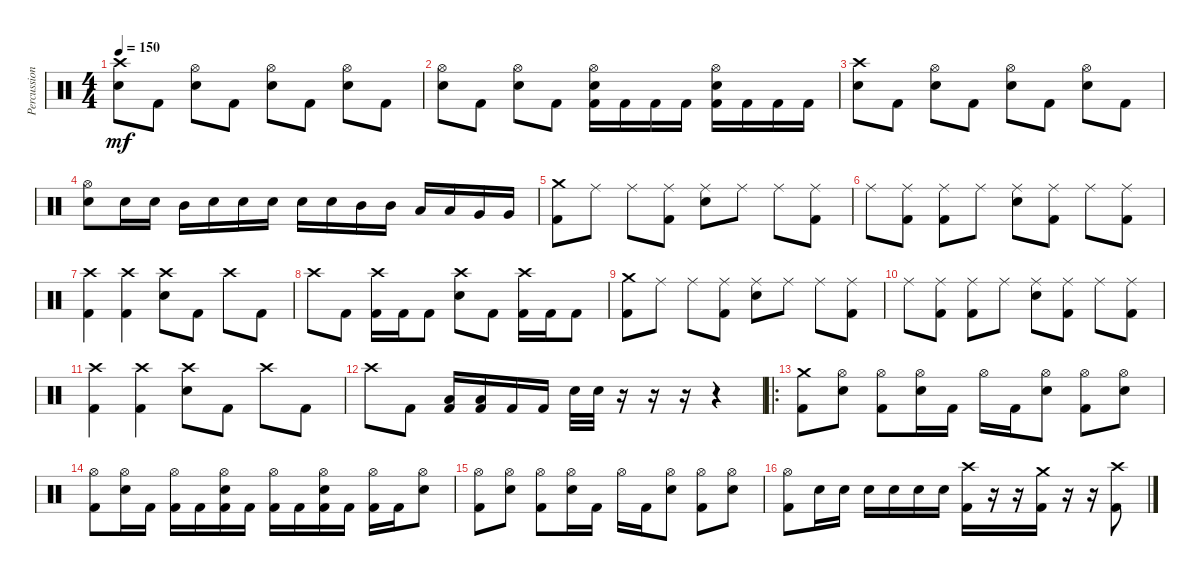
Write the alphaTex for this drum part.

\track ("Percussion" "Percussion") {instrument percussion}
\staff {score}
\articulation defaults
\ts (4 4)
\tempo 150
\clef neutral
\ks c
("Crash high (hit)" "Snare (hit) 2").8{dy mf} "Kick (hit) 2".8 ("Hi-Hat (open)" "Snare (hit) 2").8 "Kick (hit) 2".8 ("Hi-Hat (open)" "Snare (hit) 2").8 "Kick (hit) 2".8 ("Hi-Hat (open)" "Snare (hit) 2").8 "Kick (hit) 2".8 |
("Hi-Hat (open)" "Snare (hit) 2").8 "Kick (hit) 2".8 ("Hi-Hat (open)" "Snare (hit) 2").8 "Kick (hit) 2".8 ("Kick (hit) 2" "Snare (hit) 2" "Hi-Hat (open)").16 "Kick (hit) 2".16 "Kick (hit) 2".16 "Kick (hit) 2".16 ("Kick (hit) 2" "Snare (hit) 2" "Hi-Hat (open)").16 "Kick (hit) 2".16 "Kick (hit) 2".16 "Kick (hit) 2".16 |
("Crash high (hit)" "Snare (hit) 2").8 "Kick (hit) 2".8 ("Hi-Hat (open)" "Snare (hit) 2").8 "Kick (hit) 2".8 ("Hi-Hat (open)" "Snare (hit) 2").8 "Kick (hit) 2".8 ("Hi-Hat (open)" "Snare (hit) 2").8 "Kick (hit) 2".8 |
("Snare (hit) 2" "Hi-Hat (open)").8 "Snare (hit) 2".16 "Snare (hit) 2".16 "Mid Tom (hit)".16 "Snare (hit) 2".16 "Snare (hit) 2".16 "Snare (hit) 2".16 "Snare (hit) 2".16 "Snare (hit) 2".16 "Mid Tom (hit)".16 "Mid Tom (hit)".16 "Low Tom (hit)".16 "Low Tom (hit)".16 "Very Low Tom (hit)".16 "Very Low Tom (hit)".16 |
("Crash medium (hit)" "Kick (hit) 2").8 "Ride (middle)".8 "Ride (middle)".8 ("Ride (middle)" "Kick (hit) 2").8 ("Ride (middle)" "Snare (hit) 2").8 "Ride (middle)".8 "Ride (middle)".8 ("Ride (middle)" "Kick (hit) 2").8 |
"Ride (middle)".8 ("Ride (middle)" "Kick (hit) 2").8 ("Ride (middle)" "Kick (hit) 2").8 "Ride (middle)".8 ("Ride (middle)" "Snare (hit) 2").8 ("Ride (middle)" "Kick (hit) 2").8 "Ride (middle)".8 ("Kick (hit) 2" "Ride (middle)").8 |
("Crash high (hit)" "Kick (hit) 2").4 ("Kick (hit) 2" "Crash high (hit)").4 ("Snare (hit) 2" "Crash high (hit)").8 "Kick (hit) 2".8 "Crash high (hit)".8 "Kick (hit) 2".8 |
"Crash high (hit)".8 "Kick (hit) 2".8 ("Kick (hit) 2" "Crash high (hit)").16 "Kick (hit) 2".16 "Kick (hit) 2".8 ("Snare (hit) 2" "Crash high (hit)").8 "Kick (hit) 2".8 ("Kick (hit) 2" "Crash high (hit)").16 "Kick (hit) 2".16 "Kick (hit) 2".8 |
("Crash medium (hit)" "Kick (hit) 2").8 "Ride (middle)".8 "Ride (middle)".8 ("Ride (middle)" "Kick (hit) 2").8 ("Ride (middle)" "Snare (hit) 2").8 "Ride (middle)".8 "Ride (middle)".8 ("Ride (middle)" "Kick (hit) 2").8 |
"Ride (middle)".8 ("Ride (middle)" "Kick (hit) 2").8 ("Ride (middle)" "Kick (hit) 2").8 "Ride (middle)".8 ("Ride (middle)" "Snare (hit) 2").8 ("Ride (middle)" "Kick (hit) 2").8 "Ride (middle)".8 ("Kick (hit) 2" "Ride (middle)").8 |
("Crash high (hit)" "Kick (hit) 2").4 ("Kick (hit) 2" "Crash high (hit)").4 ("Snare (hit) 2" "Crash high (hit)").8 "Kick (hit) 2".8 "Crash high (hit)".8 "Kick (hit) 2".8 |
"Crash high (hit)".8 "Kick (hit) 2".8 ("Low Tom (hit)" "Kick (hit) 2").16 ("Low Tom (hit)" "Kick (hit) 2").16 "Kick (hit) 2".16 "Kick (hit) 2".16 "Snare (hit) 2".32 "Snare (hit) 2".32 r.16 r.16 r.16 r.4 |
\ro
("Kick (hit) 2" "Crash medium (hit)").8 ("Hi-Hat (open)" "Snare (hit) 2").8 ("Hi-Hat (open)" "Kick (hit) 2").8 ("Hi-Hat (open)" "Snare (hit) 2").16 "Kick (hit) 2".16 "Hi-Hat (open)".16 "Kick (hit) 2".16 ("Snare (hit) 2" "Hi-Hat (open)").8 ("Hi-Hat (open)" "Kick (hit) 2").8 ("Snare (hit) 2" "Hi-Hat (open)").8 |
("Kick (hit) 2" "Hi-Hat (open)").8 ("Snare (hit) 2" "Hi-Hat (open)").16 "Kick (hit) 2".16 ("Kick (hit) 2" "Hi-Hat (open)").16 "Kick (hit) 2".16 ("Hi-Hat (open)" "Snare (hit) 2" "Kick (hit) 2").16 "Kick (hit) 2".16 ("Kick (hit) 2" "Hi-Hat (open)").16 "Kick (hit) 2".16 ("Kick (hit) 2" "Hi-Hat (open)" "Snare (hit) 2").16 "Kick (hit) 2".16 ("Hi-Hat (open)" "Kick (hit) 2").16 "Kick (hit) 2".16 ("Hi-Hat (open)" "Snare (hit) 2").8 |
("Hi-Hat (open)" "Kick (hit) 2").8 ("Hi-Hat (open)" "Snare (hit) 2").8 ("Hi-Hat (open)" "Kick (hit) 2").8 ("Hi-Hat (open)" "Snare (hit) 2").16 "Kick (hit) 2".16 "Hi-Hat (open)".16 "Kick (hit) 2".16 ("Snare (hit) 2" "Hi-Hat (open)").8 ("Hi-Hat (open)" "Kick (hit) 2").8 ("Snare (hit) 2" "Hi-Hat (open)").8 |
("Kick (hit) 2" "Hi-Hat (open)").8 "Snare (hit) 2".16 "Snare (hit) 2".16 "Snare (hit) 2".16 "Snare (hit) 2".16 "Snare (hit) 2".16 "Snare (hit) 2".16 ("Kick (hit) 2" "Crash high (hit)").16 r.16 r.16 ("Kick (hit) 2" "Crash medium (hit)").16 r.16 r.16 ("Kick (hit) 2" "Crash high (hit)").8
